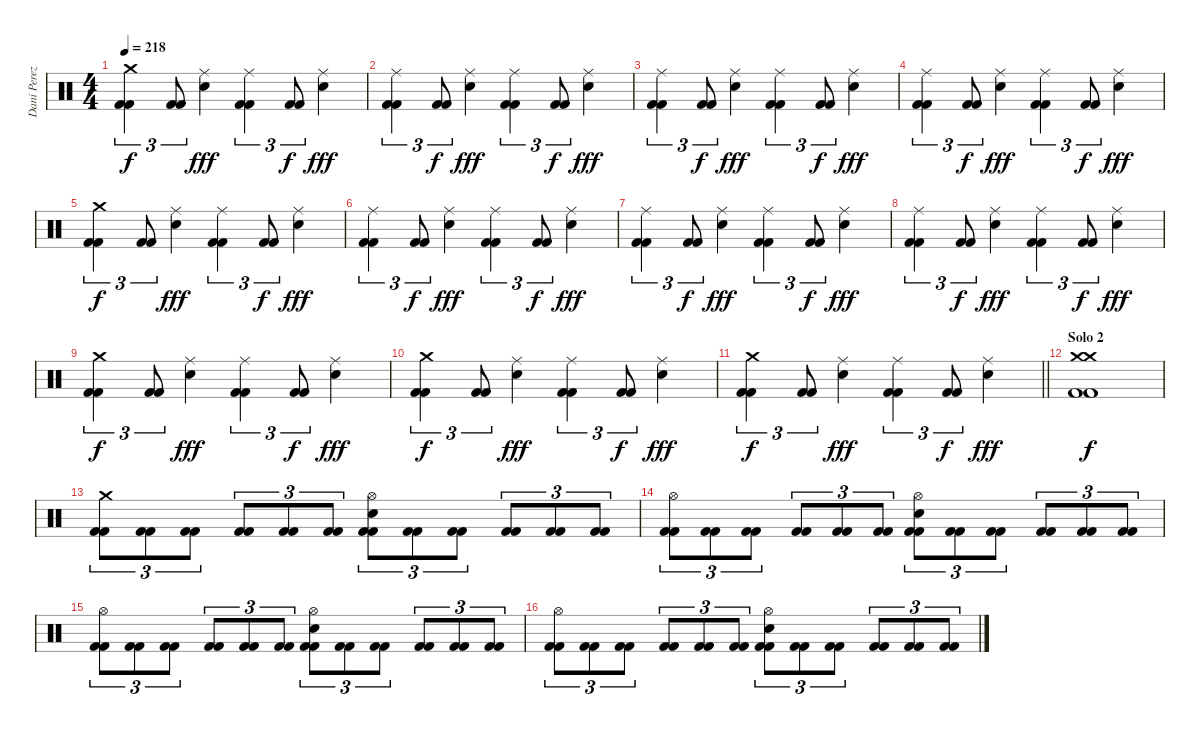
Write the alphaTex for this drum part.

\track ("Dani Perez" "Dani Perez") {instrument percussion}
\staff {score}
\articulation defaults
\ts (4 4)
\tempo 218
\clef neutral
\ks c
("Crash medium (hit)" "Kick (hit) 2" "Kick (hit) 2").4{tu (3 2) dy f} ("Kick (hit) 2" "Kick (hit) 2").8{tu (3 2)} ("Ride (middle)" "Snare (hit) 2").4{dy fff} ("Ride (middle)" "Kick (hit) 2" "Kick (hit) 2").4{tu (3 2)} ("Kick (hit) 2" "Kick (hit) 2").8{tu (3 2) dy f} ("Ride (middle)" "Snare (hit) 2").4{dy fff} |
("Ride (middle)" "Kick (hit) 2" "Kick (hit) 2").4{tu (3 2)} ("Kick (hit) 2" "Kick (hit) 2").8{tu (3 2) dy f} ("Ride (middle)" "Snare (hit) 2").4{dy fff} ("Ride (middle)" "Kick (hit) 2" "Kick (hit) 2").4{tu (3 2)} ("Kick (hit) 2" "Kick (hit) 2").8{tu (3 2) dy f} ("Ride (middle)" "Snare (hit) 2").4{dy fff} |
("Ride (middle)" "Kick (hit) 2" "Kick (hit) 2").4{tu (3 2)} ("Kick (hit) 2" "Kick (hit) 2").8{tu (3 2) dy f} ("Ride (middle)" "Snare (hit) 2").4{dy fff} ("Ride (middle)" "Kick (hit) 2" "Kick (hit) 2").4{tu (3 2)} ("Kick (hit) 2" "Kick (hit) 2").8{tu (3 2) dy f} ("Ride (middle)" "Snare (hit) 2").4{dy fff} |
("Ride (middle)" "Kick (hit) 2" "Kick (hit) 2").4{tu (3 2)} ("Kick (hit) 2" "Kick (hit) 2").8{tu (3 2) dy f} ("Ride (middle)" "Snare (hit) 2").4{dy fff} ("Ride (middle)" "Kick (hit) 2" "Kick (hit) 2").4{tu (3 2)} ("Kick (hit) 2" "Kick (hit) 2").8{tu (3 2) dy f} ("Ride (middle)" "Snare (hit) 2").4{dy fff} |
("Crash medium (hit)" "Kick (hit) 2" "Kick (hit) 2").4{tu (3 2) dy f} ("Kick (hit) 2" "Kick (hit) 2").8{tu (3 2)} ("Ride (middle)" "Snare (hit) 2").4{dy fff} ("Ride (middle)" "Kick (hit) 2" "Kick (hit) 2").4{tu (3 2)} ("Kick (hit) 2" "Kick (hit) 2").8{tu (3 2) dy f} ("Ride (middle)" "Snare (hit) 2").4{dy fff} |
("Ride (middle)" "Kick (hit) 2" "Kick (hit) 2").4{tu (3 2)} ("Kick (hit) 2" "Kick (hit) 2").8{tu (3 2) dy f} ("Ride (middle)" "Snare (hit) 2").4{dy fff} ("Ride (middle)" "Kick (hit) 2" "Kick (hit) 2").4{tu (3 2)} ("Kick (hit) 2" "Kick (hit) 2").8{tu (3 2) dy f} ("Ride (middle)" "Snare (hit) 2").4{dy fff} |
("Ride (middle)" "Kick (hit) 2" "Kick (hit) 2").4{tu (3 2)} ("Kick (hit) 2" "Kick (hit) 2").8{tu (3 2) dy f} ("Ride (middle)" "Snare (hit) 2").4{dy fff} ("Ride (middle)" "Kick (hit) 2" "Kick (hit) 2").4{tu (3 2)} ("Kick (hit) 2" "Kick (hit) 2").8{tu (3 2) dy f} ("Ride (middle)" "Snare (hit) 2").4{dy fff} |
("Ride (middle)" "Kick (hit) 2" "Kick (hit) 2").4{tu (3 2)} ("Kick (hit) 2" "Kick (hit) 2").8{tu (3 2) dy f} ("Ride (middle)" "Snare (hit) 2").4{dy fff} ("Ride (middle)" "Kick (hit) 2" "Kick (hit) 2").4{tu (3 2)} ("Kick (hit) 2" "Kick (hit) 2").8{tu (3 2) dy f} ("Ride (middle)" "Snare (hit) 2").4{dy fff} |
("Crash medium (hit)" "Kick (hit) 2" "Kick (hit) 2").4{tu (3 2) dy f} ("Kick (hit) 2" "Kick (hit) 2").8{tu (3 2)} ("Ride (middle)" "Snare (hit) 2").4{dy fff} ("Ride (middle)" "Kick (hit) 2" "Kick (hit) 2").4{tu (3 2)} ("Kick (hit) 2" "Kick (hit) 2").8{tu (3 2) dy f} ("Ride (middle)" "Snare (hit) 2").4{dy fff} |
("Crash medium (hit)" "Kick (hit) 2" "Kick (hit) 2").4{tu (3 2) dy f} ("Kick (hit) 2" "Kick (hit) 2").8{tu (3 2)} ("Ride (middle)" "Snare (hit) 2").4{dy fff} ("Ride (middle)" "Kick (hit) 2" "Kick (hit) 2").4{tu (3 2)} ("Kick (hit) 2" "Kick (hit) 2").8{tu (3 2) dy f} ("Ride (middle)" "Snare (hit) 2").4{dy fff} |
\barLineRight lightlight
("Crash medium (hit)" "Kick (hit) 2" "Kick (hit) 2").4{tu (3 2) dy f} ("Kick (hit) 2" "Kick (hit) 2").8{tu (3 2)} ("Ride (middle)" "Snare (hit) 2").4{dy fff} ("Ride (middle)" "Kick (hit) 2" "Kick (hit) 2").4{tu (3 2)} ("Kick (hit) 2" "Kick (hit) 2").8{tu (3 2) dy f} ("Ride (middle)" "Snare (hit) 2").4{dy fff} |
\section ("" "Solo 2")
("Crash medium (hit)" "Crash medium (hit)" "Kick (hit) 2" "Kick (hit) 2").1{dy f} |
("Crash medium (hit)" "Kick (hit) 2" "Kick (hit) 2").8{tu (3 2)} ("Kick (hit) 2" "Kick (hit) 2").8{tu (3 2)} ("Kick (hit) 2" "Kick (hit) 2").8{tu (3 2)} ("Kick (hit) 2" "Kick (hit) 2").8{tu (3 2)} ("Kick (hit) 2" "Kick (hit) 2").8{tu (3 2)} ("Kick (hit) 2" "Kick (hit) 2").8{tu (3 2)} ("Hi-Hat (open)" "Snare (hit) 2" "Kick (hit) 2" "Kick (hit) 2").8{tu (3 2)} ("Kick (hit) 2" "Kick (hit) 2").8{tu (3 2)} ("Kick (hit) 2" "Kick (hit) 2").8{tu (3 2)} ("Kick (hit) 2" "Kick (hit) 2").8{tu (3 2)} ("Kick (hit) 2" "Kick (hit) 2").8{tu (3 2)} ("Kick (hit) 2" "Kick (hit) 2").8{tu (3 2)} |
("Hi-Hat (open)" "Kick (hit) 2" "Kick (hit) 2").8{tu (3 2)} ("Kick (hit) 2" "Kick (hit) 2").8{tu (3 2)} ("Kick (hit) 2" "Kick (hit) 2").8{tu (3 2)} ("Kick (hit) 2" "Kick (hit) 2").8{tu (3 2)} ("Kick (hit) 2" "Kick (hit) 2").8{tu (3 2)} ("Kick (hit) 2" "Kick (hit) 2").8{tu (3 2)} ("Hi-Hat (open)" "Snare (hit) 2" "Kick (hit) 2" "Kick (hit) 2").8{tu (3 2)} ("Kick (hit) 2" "Kick (hit) 2").8{tu (3 2)} ("Kick (hit) 2" "Kick (hit) 2").8{tu (3 2)} ("Kick (hit) 2" "Kick (hit) 2").8{tu (3 2)} ("Kick (hit) 2" "Kick (hit) 2").8{tu (3 2)} ("Kick (hit) 2" "Kick (hit) 2").8{tu (3 2)} |
("Hi-Hat (open)" "Kick (hit) 2" "Kick (hit) 2").8{tu (3 2)} ("Kick (hit) 2" "Kick (hit) 2").8{tu (3 2)} ("Kick (hit) 2" "Kick (hit) 2").8{tu (3 2)} ("Kick (hit) 2" "Kick (hit) 2").8{tu (3 2)} ("Kick (hit) 2" "Kick (hit) 2").8{tu (3 2)} ("Kick (hit) 2" "Kick (hit) 2").8{tu (3 2)} ("Hi-Hat (open)" "Snare (hit) 2" "Kick (hit) 2" "Kick (hit) 2").8{tu (3 2)} ("Kick (hit) 2" "Kick (hit) 2").8{tu (3 2)} ("Kick (hit) 2" "Kick (hit) 2").8{tu (3 2)} ("Kick (hit) 2" "Kick (hit) 2").8{tu (3 2)} ("Kick (hit) 2" "Kick (hit) 2").8{tu (3 2)} ("Kick (hit) 2" "Kick (hit) 2").8{tu (3 2)} |
("Hi-Hat (open)" "Kick (hit) 2" "Kick (hit) 2").8{tu (3 2)} ("Kick (hit) 2" "Kick (hit) 2").8{tu (3 2)} ("Kick (hit) 2" "Kick (hit) 2").8{tu (3 2)} ("Kick (hit) 2" "Kick (hit) 2").8{tu (3 2)} ("Kick (hit) 2" "Kick (hit) 2").8{tu (3 2)} ("Kick (hit) 2" "Kick (hit) 2").8{tu (3 2)} ("Hi-Hat (open)" "Snare (hit) 2" "Kick (hit) 2" "Kick (hit) 2").8{tu (3 2)} ("Kick (hit) 2" "Kick (hit) 2").8{tu (3 2)} ("Kick (hit) 2" "Kick (hit) 2").8{tu (3 2)} ("Kick (hit) 2" "Kick (hit) 2").8{tu (3 2)} ("Kick (hit) 2" "Kick (hit) 2").8{tu (3 2)} ("Kick (hit) 2" "Kick (hit) 2").8{tu (3 2)}
